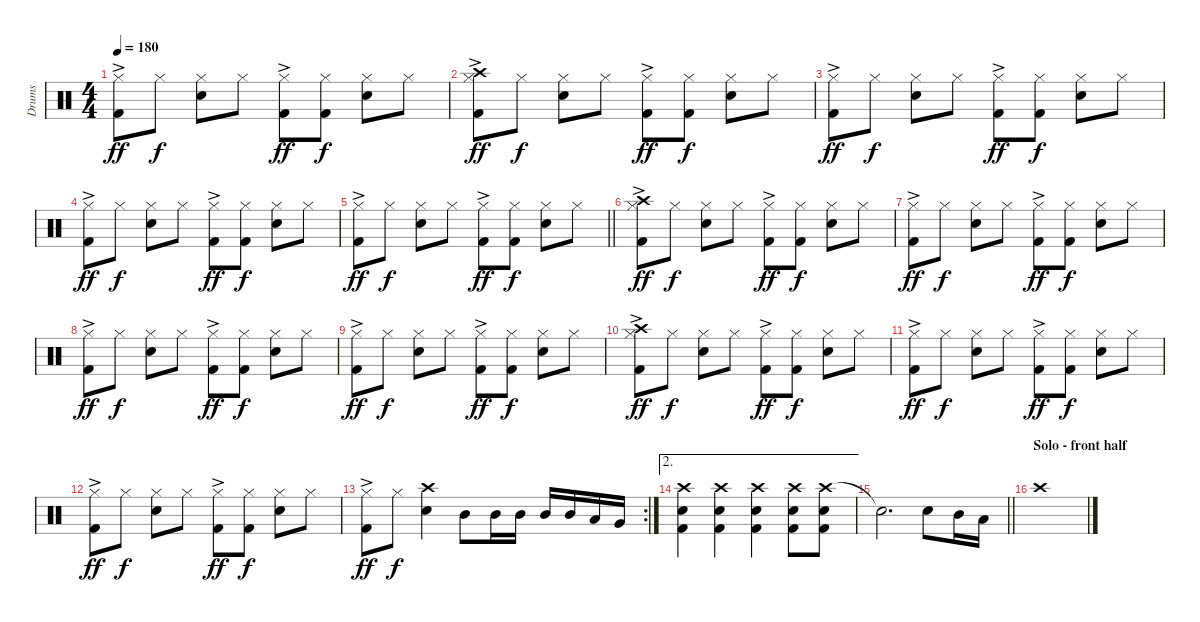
\track ("Drums" "Drums") {instrument percussion}
\staff {score}
\articulation defaults
\ts (4 4)
\tempo 180
\clef neutral
\ks c
("Hi-Hat (closed)"{ac} "Kick (hit) 2").8{dy ff} "Hi-Hat (closed)".8{dy f} ("Hi-Hat (closed)" "Snare (hit) 2").8 "Hi-Hat (closed)".8 ("Hi-Hat (closed)"{ac} "Kick (hit) 2").8{dy ff} ("Hi-Hat (closed)" "Kick (hit) 2").8{dy f} ("Hi-Hat (closed)" "Snare (hit) 2").8 "Hi-Hat (closed)".8 |
("Hi-Hat (closed)"{ac} "Crash high (hit)" "Kick (hit) 2").8{dy ff} "Hi-Hat (closed)".8{dy f} ("Hi-Hat (closed)" "Snare (hit) 2").8 "Hi-Hat (closed)".8 ("Hi-Hat (closed)"{ac} "Kick (hit) 2").8{dy ff} ("Hi-Hat (closed)" "Kick (hit) 2").8{dy f} ("Hi-Hat (closed)" "Snare (hit) 2").8 "Hi-Hat (closed)".8 |
("Hi-Hat (closed)"{ac} "Kick (hit) 2").8{dy ff} "Hi-Hat (closed)".8{dy f} ("Hi-Hat (closed)" "Snare (hit) 2").8 "Hi-Hat (closed)".8 ("Hi-Hat (closed)"{ac} "Kick (hit) 2").8{dy ff} ("Hi-Hat (closed)" "Kick (hit) 2").8{dy f} ("Hi-Hat (closed)" "Snare (hit) 2").8 "Hi-Hat (closed)".8 |
("Hi-Hat (closed)"{ac} "Kick (hit) 2").8{dy ff} "Hi-Hat (closed)".8{dy f} ("Hi-Hat (closed)" "Snare (hit) 2").8 "Hi-Hat (closed)".8 ("Hi-Hat (closed)"{ac} "Kick (hit) 2").8{dy ff} ("Hi-Hat (closed)" "Kick (hit) 2").8{dy f} ("Hi-Hat (closed)" "Snare (hit) 2").8 "Hi-Hat (closed)".8 |
\barLineRight lightlight
("Hi-Hat (closed)"{ac} "Kick (hit) 2").8{dy ff} "Hi-Hat (closed)".8{dy f} ("Hi-Hat (closed)" "Snare (hit) 2").8 "Hi-Hat (closed)".8 ("Hi-Hat (closed)"{ac} "Kick (hit) 2").8{dy ff} ("Hi-Hat (closed)" "Kick (hit) 2").8{dy f} ("Hi-Hat (closed)" "Snare (hit) 2").8 "Hi-Hat (closed)".8 |
("Hi-Hat (closed)"{ac} "Crash high (hit)" "Kick (hit) 2").8{dy ff} "Hi-Hat (closed)".8{dy f} ("Hi-Hat (closed)" "Snare (hit) 2").8 "Hi-Hat (closed)".8 ("Hi-Hat (closed)"{ac} "Kick (hit) 2").8{dy ff} ("Hi-Hat (closed)" "Kick (hit) 2").8{dy f} ("Hi-Hat (closed)" "Snare (hit) 2").8 "Hi-Hat (closed)".8 |
("Hi-Hat (closed)"{ac} "Kick (hit) 2").8{dy ff} "Hi-Hat (closed)".8{dy f} ("Hi-Hat (closed)" "Snare (hit) 2").8 "Hi-Hat (closed)".8 ("Hi-Hat (closed)"{ac} "Kick (hit) 2").8{dy ff} ("Hi-Hat (closed)" "Kick (hit) 2").8{dy f} ("Hi-Hat (closed)" "Snare (hit) 2").8 "Hi-Hat (closed)".8 |
("Hi-Hat (closed)"{ac} "Kick (hit) 2").8{dy ff} "Hi-Hat (closed)".8{dy f} ("Hi-Hat (closed)" "Snare (hit) 2").8 "Hi-Hat (closed)".8 ("Hi-Hat (closed)"{ac} "Kick (hit) 2").8{dy ff} ("Hi-Hat (closed)" "Kick (hit) 2").8{dy f} ("Hi-Hat (closed)" "Snare (hit) 2").8 "Hi-Hat (closed)".8 |
("Hi-Hat (closed)"{ac} "Kick (hit) 2").8{dy ff} "Hi-Hat (closed)".8{dy f} ("Hi-Hat (closed)" "Snare (hit) 2").8 "Hi-Hat (closed)".8 ("Hi-Hat (closed)"{ac} "Kick (hit) 2").8{dy ff} ("Hi-Hat (closed)" "Kick (hit) 2").8{dy f} ("Hi-Hat (closed)" "Snare (hit) 2").8 "Hi-Hat (closed)".8 |
("Hi-Hat (closed)"{ac} "Crash high (hit)" "Kick (hit) 2").8{dy ff} "Hi-Hat (closed)".8{dy f} ("Hi-Hat (closed)" "Snare (hit) 2").8 "Hi-Hat (closed)".8 ("Hi-Hat (closed)"{ac} "Kick (hit) 2").8{dy ff} ("Hi-Hat (closed)" "Kick (hit) 2").8{dy f} ("Hi-Hat (closed)" "Snare (hit) 2").8 "Hi-Hat (closed)".8 |
("Hi-Hat (closed)"{ac} "Kick (hit) 2").8{dy ff} "Hi-Hat (closed)".8{dy f} ("Hi-Hat (closed)" "Snare (hit) 2").8 "Hi-Hat (closed)".8 ("Hi-Hat (closed)"{ac} "Kick (hit) 2").8{dy ff} ("Hi-Hat (closed)" "Kick (hit) 2").8{dy f} ("Hi-Hat (closed)" "Snare (hit) 2").8 "Hi-Hat (closed)".8 |
("Hi-Hat (closed)"{ac} "Kick (hit) 2").8{dy ff} "Hi-Hat (closed)".8{dy f} ("Hi-Hat (closed)" "Snare (hit) 2").8 "Hi-Hat (closed)".8 ("Hi-Hat (closed)"{ac} "Kick (hit) 2").8{dy ff} ("Hi-Hat (closed)" "Kick (hit) 2").8{dy f} ("Hi-Hat (closed)" "Snare (hit) 2").8 "Hi-Hat (closed)".8 |
\rc 2
("Hi-Hat (closed)"{ac} "Kick (hit) 2").8{dy ff} "Hi-Hat (closed)".8{dy f} ("Crash high (hit)" "Snare (hit) 2").4 "Mid Tom (hit)".8 "Mid Tom (hit)".16 "Mid Tom (hit)".16 "Mid Tom (hit)".16 "Mid Tom (hit)".16 "Low Tom (hit)".16 "Very Low Tom (hit)".16 |
\ae 2
("Crash high (hit)" "Snare (hit) 2" "Kick (hit) 2").4 ("Crash high (hit)" "Snare (hit) 2" "Kick (hit) 2").4 ("Crash high (hit)" "Snare (hit) 2" "Kick (hit) 2").4 ("Crash high (hit)" "Snare (hit) 2" "Kick (hit) 2").8 ("Crash high (hit)" "Snare (hit) 2" "Kick (hit) 2").8 |
\barLineRight lightlight "Snare (hit)"{t}.2{d} "Snare (hit) 2".8 "Mid Tom (hit)".16 "Low Tom (hit)".16
|
\section ("" "Solo - front half")
"Crash high (hit)".1
